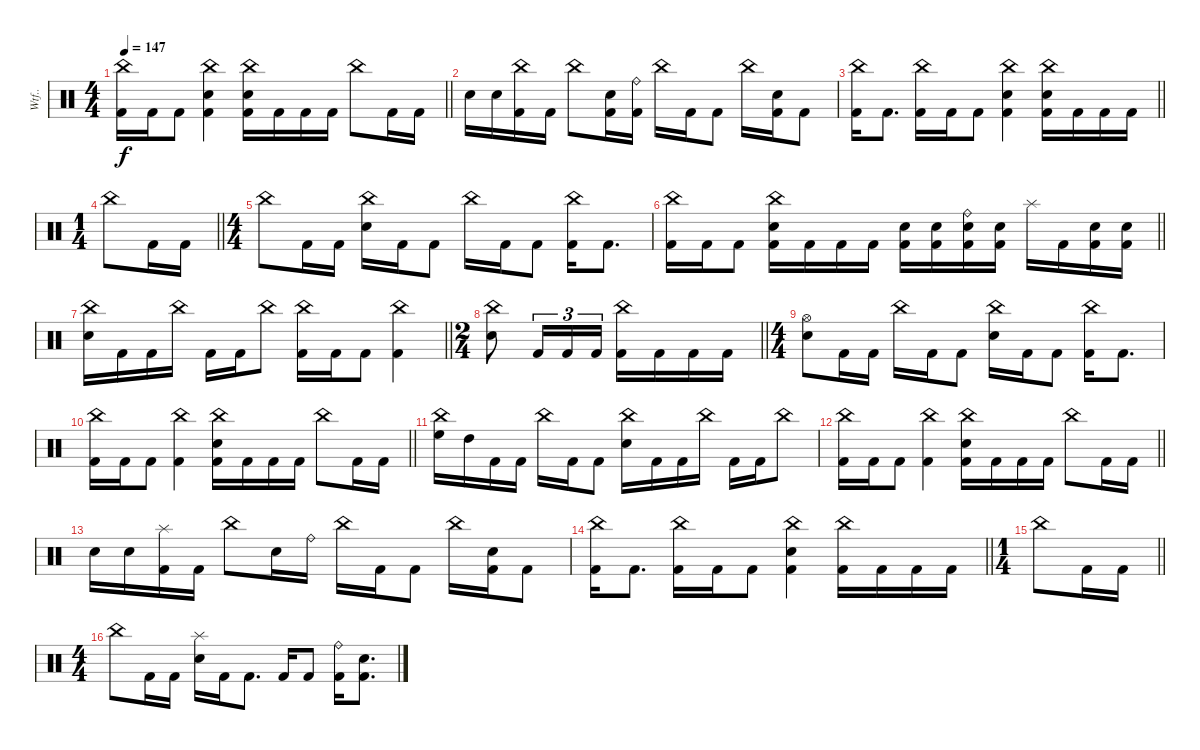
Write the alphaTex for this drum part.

\track ("Wtf.." "Wtf..") {instrument percussion}
\staff {score}
\articulation defaults
\ts (4 4)
\tempo 147
\clef neutral
\barLineRight lightlight
\ks c
("China (hit)" "Kick (hit) 2").16{dy f} "Kick (hit) 2".16 "Kick (hit) 2".8 ("China (hit)" "Electric Snare (hit)" "Kick (hit) 2").4 ("China (hit)" "Electric Snare (hit)" "Kick (hit) 2").16 "Kick (hit) 2".16 "Kick (hit) 2".16 "Kick (hit) 2".16 "China (hit)".8 "Kick (hit) 2".16 "Kick (hit) 2".16 |
"Electric Snare (hit)".16 "Electric Snare (hit)".16 ("China (hit)" "Kick (hit) 2").16 "Kick (hit) 2".16 "China (hit)".8 ("Electric Snare (hit)" "Kick (hit) 2").16 ("Ride (bell)" "Kick (hit) 2").16 "China (hit)".16 "Kick (hit) 2".16 "Kick (hit) 2".8 "China (hit)".16 ("Electric Snare (hit)" "Kick (hit) 2").16 "Kick (hit) 2".8 |
\barLineRight lightlight
("China (hit)" "Kick (hit) 2").16 "Kick (hit) 2".8{d} ("China (hit)" "Kick (hit) 2").16 "Kick (hit) 2".16 "Kick (hit) 2".8 ("China (hit)" "Electric Snare (hit)" "Kick (hit) 2").4 ("China (hit)" "Electric Snare (hit)" "Kick (hit) 2").16 "Kick (hit) 2".16 "Kick (hit) 2".16 "Kick (hit) 2".16 |
\ts (1 4)
\barLineRight lightlight "China (hit)".8 "Kick (hit) 2".16 "Kick (hit) 2".16
|
\ts (4 4)
"China (hit)".8 "Kick (hit) 2".16 "Kick (hit) 2".16 ("China (hit)" "Electric Snare (hit)").16 "Kick (hit) 2".16 "Kick (hit) 2".8 "China (hit)".16 "Kick (hit) 2".16 "Kick (hit) 2".8 ("China (hit)" "Kick (hit) 2").16 "Kick (hit) 2".8{d} |
\barLineRight lightlight
("China (hit)" "Kick (hit) 2").16 "Kick (hit) 2".16 "Kick (hit) 2".8 ("China (hit)" "Electric Snare (hit)" "Kick (hit) 2").16 "Kick (hit) 2".16 "Kick (hit) 2".16 "Kick (hit) 2".16 ("Electric Snare (hit)" "Kick (hit) 2").16 ("Electric Snare (hit)" "Kick (hit) 2").16 ("Ride (bell)" "Electric Snare (hit)" "Kick (hit) 2").16 ("Electric Snare (hit)" "Kick (hit) 2").16 "Splash (hit)".16 "Kick (hit) 2".16 ("Electric Snare (hit)" "Kick (hit) 2").16 ("Electric Snare (hit)" "Kick (hit) 2").16 |
\barLineRight lightlight
("China (hit)" "Electric Snare (hit)").16 "Kick (hit) 2".16 "Kick (hit) 2".16 "China (hit)".16 "Kick (hit) 2".16 "Kick (hit) 2".16 "China (hit)".8 ("China (hit)" "Kick (hit) 2").16 "Kick (hit) 2".16 "Kick (hit) 2".8 ("China (hit)" "Kick (hit) 2").4 |
\ts (2 4)
\barLineRight lightlight
("China (hit)" "Electric Snare (hit)").8 "Kick (hit) 2".16{tu (3 2)} "Kick (hit) 2".16{tu (3 2)} "Kick (hit) 2".16{tu (3 2)} ("China (hit)" "Kick (hit) 2").16 "Kick (hit) 2".16 "Kick (hit) 2".16 "Kick (hit) 2".16 |
\ts (4 4)
("Hi-Hat (open)" "Electric Snare (hit)").8 "Kick (hit) 2".16 "Kick (hit) 2".16 "China (hit)".16 "Kick (hit) 2".16 "Kick (hit) 2".8 ("China (hit)" "Electric Snare (hit)").16 "Kick (hit) 2".16 "Kick (hit) 2".8 ("China (hit)" "Kick (hit) 2").16 "Kick (hit) 2".8{d} |
\barLineRight lightlight
("China (hit)" "Kick (hit) 2").16 "Kick (hit) 2".16 "Kick (hit) 2".8 ("China (hit)" "Kick (hit) 2").4 ("China (hit)" "Electric Snare (hit)" "Kick (hit) 2").16 "Kick (hit) 2".16 "Kick (hit) 2".16 "Kick (hit) 2".16 "China (hit)".8 "Kick (hit) 2".16 "Kick (hit) 2".16 |
("China (hit)" "High Floor Tom (hit)").16 "High Tom (hit)".16 "Kick (hit) 2".16 "Kick (hit) 2".16 "China (hit)".16 "Kick (hit) 2".16 "Kick (hit) 2".8 ("China (hit)" "Electric Snare (hit)").16 "Kick (hit) 2".16 "Kick (hit) 2".16 "China (hit)".16 "Kick (hit) 2".16 "Kick (hit) 2".16 "China (hit)".8 |
\barLineRight lightlight
("China (hit)" "Kick (hit) 2").16 "Kick (hit) 2".16 "Kick (hit) 2".8 ("China (hit)" "Kick (hit) 2").4 ("China (hit)" "Electric Snare (hit)" "Kick (hit) 2").16 "Kick (hit) 2".16 "Kick (hit) 2".16 "Kick (hit) 2".16 "China (hit)".8 "Kick (hit) 2".16 "Kick (hit) 2".16 |
"Electric Snare (hit)".16 "Electric Snare (hit)".16 ("Splash (hit)" "Kick (hit) 2").16 "Kick (hit) 2".16 "China (hit)".8 "Electric Snare (hit)".16 "Ride (bell)".16 "China (hit)".16 "Kick (hit) 2".16 "Kick (hit) 2".8 "China (hit)".16 ("Electric Snare (hit)" "Kick (hit) 2").16 "Kick (hit) 2".8 |
\barLineRight lightlight
("China (hit)" "Kick (hit) 2").16 "Kick (hit) 2".8{d} ("China (hit)" "Kick (hit) 2").16 "Kick (hit) 2".16 "Kick (hit) 2".8 ("China (hit)" "Electric Snare (hit)" "Kick (hit) 2").4 ("China (hit)" "Kick (hit) 2").16 "Kick (hit) 2".16 "Kick (hit) 2".16 "Kick (hit) 2".16 |
\ts (1 4)
\barLineRight lightlight "China (hit)".8 "Kick (hit) 2".16 "Kick (hit) 2".16
|
\ts (4 4)
"China (hit)".8 "Kick (hit) 2".16 "Kick (hit) 2".16 ("Splash (hit)" "Electric Snare (hit)").16 "Kick (hit) 2".16 "Kick (hit) 2".8{d} "Kick (hit) 2".16 "Kick (hit) 2".8 ("Ride (bell)" "Kick (hit) 2").16 ("Electric Snare (hit)" "Kick (hit) 2").8{d}
